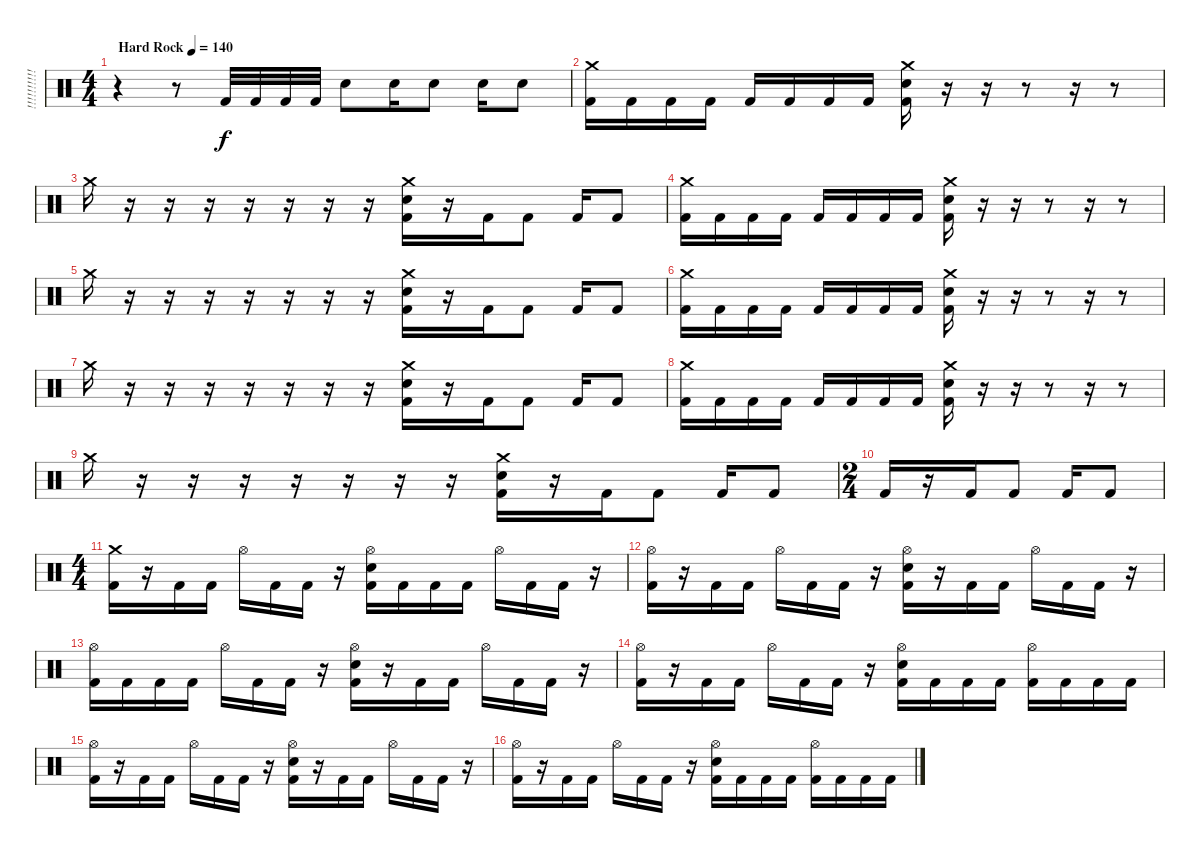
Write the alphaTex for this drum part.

\track ("!!!!!!!!!!!! 4" "!!!!!!!!!!") {instrument percussion}
\staff {score}
\articulation defaults
\ts (4 4)
\tempo (140 "Hard Rock")
\clef neutral
\ks c
r.4{dy f} r.8 "Kick (hit) 2".32 "Kick (hit) 2".32 "Kick (hit) 2".32 "Kick (hit) 2".32 "Electric Snare (hit)".8 "Electric Snare (hit)".16 "Electric Snare (hit)".8 "Electric Snare (hit)".16 "Electric Snare (hit)".8 |
("Crash medium (hit)" "Kick (hit) 2").16 "Kick (hit) 2".16 "Kick (hit) 2".16 "Kick (hit) 2".16 "Kick (hit) 2".16 "Kick (hit) 2".16 "Kick (hit) 2".16 "Kick (hit) 2".16 ("Crash medium (hit)" "Electric Snare (hit)" "Kick (hit) 2").16 r.16 r.16 r.8 r.16 r.8 |
"Crash medium (hit)".16 r.16 r.16 r.16 r.16 r.16 r.16 r.16 ("Crash medium (hit)" "Electric Snare (hit)" "Kick (hit) 2").16 r.16 "Kick (hit) 2".16 "Kick (hit) 2".8 "Kick (hit) 2".16 "Kick (hit) 2".8 |
("Crash medium (hit)" "Kick (hit) 2").16 "Kick (hit) 2".16 "Kick (hit) 2".16 "Kick (hit) 2".16 "Kick (hit) 2".16 "Kick (hit) 2".16 "Kick (hit) 2".16 "Kick (hit) 2".16 ("Crash medium (hit)" "Electric Snare (hit)" "Kick (hit) 2").16 r.16 r.16 r.8 r.16 r.8 |
"Crash medium (hit)".16 r.16 r.16 r.16 r.16 r.16 r.16 r.16 ("Crash medium (hit)" "Electric Snare (hit)" "Kick (hit) 2").16 r.16 "Kick (hit) 2".16 "Kick (hit) 2".8 "Kick (hit) 2".16 "Kick (hit) 2".8 |
("Crash medium (hit)" "Kick (hit) 2").16 "Kick (hit) 2".16 "Kick (hit) 2".16 "Kick (hit) 2".16 "Kick (hit) 2".16 "Kick (hit) 2".16 "Kick (hit) 2".16 "Kick (hit) 2".16 ("Crash medium (hit)" "Electric Snare (hit)" "Kick (hit) 2").16 r.16 r.16 r.8 r.16 r.8 |
"Crash medium (hit)".16 r.16 r.16 r.16 r.16 r.16 r.16 r.16 ("Crash medium (hit)" "Electric Snare (hit)" "Kick (hit) 2").16 r.16 "Kick (hit) 2".16 "Kick (hit) 2".8 "Kick (hit) 2".16 "Kick (hit) 2".8 |
("Crash medium (hit)" "Kick (hit) 2").16 "Kick (hit) 2".16 "Kick (hit) 2".16 "Kick (hit) 2".16 "Kick (hit) 2".16 "Kick (hit) 2".16 "Kick (hit) 2".16 "Kick (hit) 2".16 ("Crash medium (hit)" "Electric Snare (hit)" "Kick (hit) 2").16 r.16 r.16 r.8 r.16 r.8 |
"Crash medium (hit)".16 r.16 r.16 r.16 r.16 r.16 r.16 r.16 ("Crash medium (hit)" "Electric Snare (hit)" "Kick (hit) 2").16 r.16 "Kick (hit) 2".16 "Kick (hit) 2".8 "Kick (hit) 2".16 "Kick (hit) 2".8 |
\ts (2 4)
"Kick (hit) 2".16 r.16 "Kick (hit) 2".16 "Kick (hit) 2".8 "Kick (hit) 2".16 "Kick (hit) 2".8 |
\ts (4 4)
("Crash medium (hit)" "Kick (hit) 2").16 r.16 "Kick (hit) 2".16 "Kick (hit) 2".16 "Hi-Hat (open)".16 "Kick (hit) 2".16 "Kick (hit) 2".16 r.16 ("Hi-Hat (open)" "Electric Snare (hit)" "Kick (hit) 2").16 "Kick (hit) 2".16 "Kick (hit) 2".16 "Kick (hit) 2".16 "Hi-Hat (open)".16 "Kick (hit) 2".16 "Kick (hit) 2".16 r.16 |
("Hi-Hat (open)" "Kick (hit) 2").16 r.16 "Kick (hit) 2".16 "Kick (hit) 2".16 "Hi-Hat (open)".16 "Kick (hit) 2".16 "Kick (hit) 2".16 r.16 ("Hi-Hat (open)" "Electric Snare (hit)" "Kick (hit) 2").16 r.16 "Kick (hit) 2".16 "Kick (hit) 2".16 "Hi-Hat (open)".16 "Kick (hit) 2".16 "Kick (hit) 2".16 r.16 |
("Hi-Hat (open)" "Kick (hit) 2").16 "Kick (hit) 2".16 "Kick (hit) 2".16 "Kick (hit) 2".16 "Hi-Hat (open)".16 "Kick (hit) 2".16 "Kick (hit) 2".16 r.16 ("Hi-Hat (open)" "Electric Snare (hit)" "Kick (hit) 2").16 r.16 "Kick (hit) 2".16 "Kick (hit) 2".16 "Hi-Hat (open)".16 "Kick (hit) 2".16 "Kick (hit) 2".16 r.16 |
("Hi-Hat (open)" "Kick (hit) 2").16 r.16 "Kick (hit) 2".16 "Kick (hit) 2".16 "Hi-Hat (open)".16 "Kick (hit) 2".16 "Kick (hit) 2".16 r.16 ("Hi-Hat (open)" "Electric Snare (hit)" "Kick (hit) 2").16 "Kick (hit) 2".16 "Kick (hit) 2".16 "Kick (hit) 2".16 ("Hi-Hat (open)" "Kick (hit) 2").16 "Kick (hit) 2".16 "Kick (hit) 2".16 "Kick (hit) 2".16 |
("Hi-Hat (open)" "Kick (hit) 2").16 r.16 "Kick (hit) 2".16 "Kick (hit) 2".16 "Hi-Hat (open)".16 "Kick (hit) 2".16 "Kick (hit) 2".16 r.16 ("Hi-Hat (open)" "Electric Snare (hit)" "Kick (hit) 2").16 r.16 "Kick (hit) 2".16 "Kick (hit) 2".16 "Hi-Hat (open)".16 "Kick (hit) 2".16 "Kick (hit) 2".16 r.16 |
("Hi-Hat (open)" "Kick (hit) 2").16 r.16 "Kick (hit) 2".16 "Kick (hit) 2".16 "Hi-Hat (open)".16 "Kick (hit) 2".16 "Kick (hit) 2".16 r.16 ("Hi-Hat (open)" "Electric Snare (hit)" "Kick (hit) 2").16 "Kick (hit) 2".16 "Kick (hit) 2".16 "Kick (hit) 2".16 ("Hi-Hat (open)" "Kick (hit) 2").16 "Kick (hit) 2".16 "Kick (hit) 2".16 "Kick (hit) 2".16
